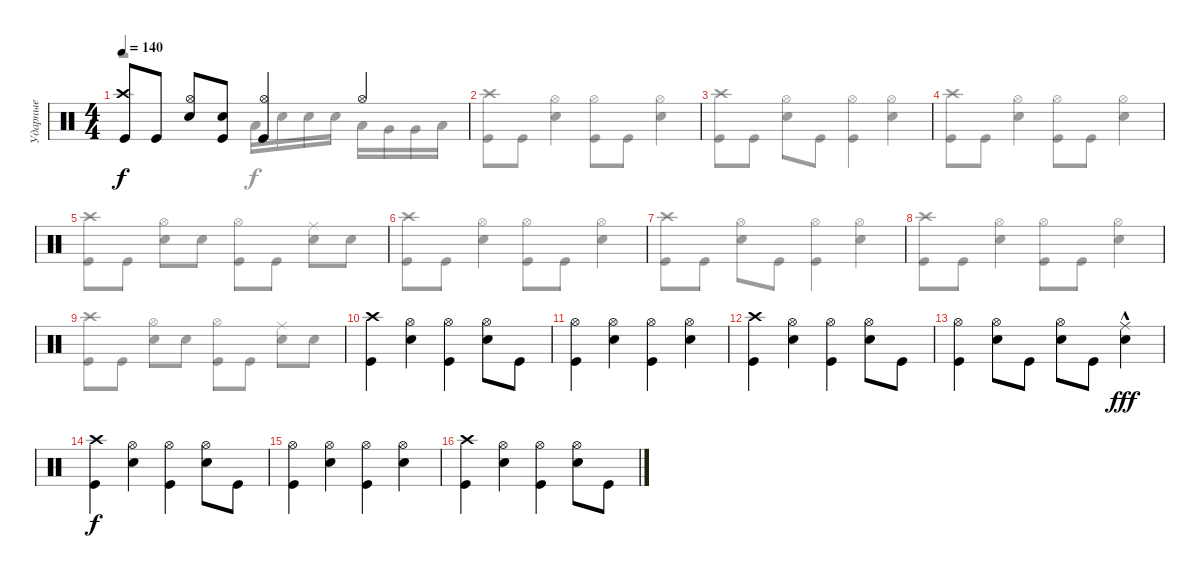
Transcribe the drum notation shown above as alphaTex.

\track ("Ударные" "Ударные") {instrument percussion}
\staff {score}
\articulation defaults
\voice
\ts (4 4)
\tempo 140
\clef neutral
\ks c
("Crash high (hit)" "Kick (hit)").8{dy f} "Kick (hit)".8 ("Hi-Hat (open)" "Electric Snare (hit)").8 ("Electric Snare (hit)" "Kick (hit)").8 ("Hi-Hat (open)" "Kick (hit)").4 "Hi-Hat (open)".4 |
|
|
|
|
|
|
|
|
("Crash high (hit)" "Kick (hit)").4 ("Hi-Hat (open)" "Electric Snare (hit)").4 ("Hi-Hat (open)" "Kick (hit)").4 ("Hi-Hat (open)" "Electric Snare (hit)").8 "Kick (hit)".8 |
("Hi-Hat (open)" "Kick (hit)").4 ("Hi-Hat (open)" "Electric Snare (hit)").4 ("Hi-Hat (open)" "Kick (hit)").4 ("Hi-Hat (open)" "Electric Snare (hit)").4 |
("Crash high (hit)" "Kick (hit)").4 ("Hi-Hat (open)" "Electric Snare (hit)").4 ("Hi-Hat (open)" "Kick (hit)").4 ("Hi-Hat (open)" "Electric Snare (hit)").8 "Kick (hit)".8 |
("Hi-Hat (open)" "Kick (hit)").4 ("Hi-Hat (open)" "Electric Snare (hit)").8 "Kick (hit)".8 ("Hi-Hat (open)" "Electric Snare (hit)").8 "Kick (hit)".8 ("Ride (middle)"{hac} "Electric Snare (hit)").4{dy fff} |
("Crash high (hit)" "Kick (hit)").4{dy f} ("Hi-Hat (open)" "Electric Snare (hit)").4 ("Hi-Hat (open)" "Kick (hit)").4 ("Hi-Hat (open)" "Electric Snare (hit)").8 "Kick (hit)".8 |
("Hi-Hat (open)" "Kick (hit)").4 ("Hi-Hat (open)" "Electric Snare (hit)").4 ("Hi-Hat (open)" "Kick (hit)").4 ("Hi-Hat (open)" "Electric Snare (hit)").4 |
("Crash high (hit)" "Kick (hit)").4 ("Hi-Hat (open)" "Electric Snare (hit)").4 ("Hi-Hat (open)" "Kick (hit)").4 ("Hi-Hat (open)" "Electric Snare (hit)").8 "Kick (hit)".8
\voice
\clef neutral
\ottava regular
\simile none
\ks c
r.2{dy f} "Low Floor Tom (hit)".16 "Electric Snare (hit)".16 "Electric Snare (hit)".16 "Electric Snare (hit)".16 "Low Tom (hit)".16 "Very Low Tom (hit)".16 "Very Low Tom (hit)".16 "Low Floor Tom (hit)".16 |
("Crash high (hit)" "Kick (hit)").8 "Kick (hit)".8 ("Hi-Hat (open)" "Electric Snare (hit)").4 ("Hi-Hat (open)" "Kick (hit)").8 "Kick (hit)".8 ("Hi-Hat (open)" "Electric Snare (hit)").4 |
("Crash high (hit)" "Kick (hit)").8 "Kick (hit)".8 ("Hi-Hat (open)" "Electric Snare (hit)").8 "Kick (hit)".8 ("Hi-Hat (open)" "Kick (hit)").4 ("Hi-Hat (open)" "Electric Snare (hit)").4 |
("Crash high (hit)" "Kick (hit)").8 "Kick (hit)".8 ("Hi-Hat (open)" "Electric Snare (hit)").4 ("Hi-Hat (open)" "Kick (hit)").8 "Kick (hit)".8 ("Hi-Hat (open)" "Electric Snare (hit)").4 |
("Crash high (hit)" "Kick (hit)").8 "Kick (hit)".8 ("Hi-Hat (open)" "Electric Snare (hit)").8 "Electric Snare (hit)".8 ("Hi-Hat (open)" "Kick (hit)").8 "Kick (hit)".8 ("Ride (middle)" "Electric Snare (hit)").8 "Electric Snare (hit)".8 |
("Crash high (hit)" "Kick (hit)").8 "Kick (hit)".8 ("Hi-Hat (open)" "Electric Snare (hit)").4 ("Hi-Hat (open)" "Kick (hit)").8 "Kick (hit)".8 ("Hi-Hat (open)" "Electric Snare (hit)").4 |
("Crash high (hit)" "Kick (hit)").8 "Kick (hit)".8 ("Hi-Hat (open)" "Electric Snare (hit)").8 "Kick (hit)".8 ("Hi-Hat (open)" "Kick (hit)").4 ("Hi-Hat (open)" "Electric Snare (hit)").4 |
("Crash high (hit)" "Kick (hit)").8 "Kick (hit)".8 ("Hi-Hat (open)" "Electric Snare (hit)").4 ("Hi-Hat (open)" "Kick (hit)").8 "Kick (hit)".8 ("Hi-Hat (open)" "Electric Snare (hit)").4 |
("Crash high (hit)" "Kick (hit)").8 "Kick (hit)".8 ("Hi-Hat (open)" "Electric Snare (hit)").8 "Electric Snare (hit)".8 ("Hi-Hat (open)" "Kick (hit)").8 "Kick (hit)".8 ("Ride (middle)" "Electric Snare (hit)").8 "Electric Snare (hit)".8 |
|
|
|
|
|
|
